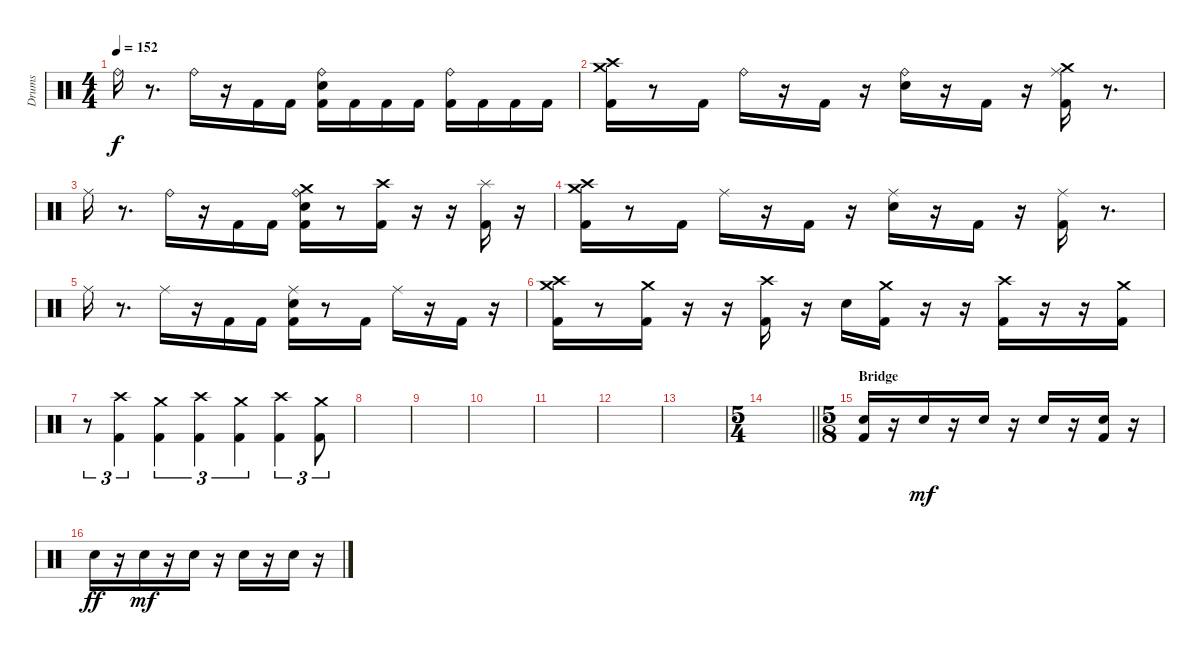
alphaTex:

\track ("Drums" "Drums") {instrument percussion}
\staff {score}
\articulation defaults
\ts (4 4)
\tempo 152
\clef neutral
\ks c "Ride (bell)".16{dy f}
r.8{d} "Ride (bell)".16 r.16 "Kick (hit) 2".16 "Kick (hit) 2".16 ("Ride (bell)" "Snare (hit) 2" "Kick (hit) 2").16 "Kick (hit) 2".16 "Kick (hit) 2".16 "Kick (hit) 2".16 ("Ride (bell)" "Kick (hit) 2").16 "Kick (hit) 2".16 "Kick (hit) 2".16 "Kick (hit) 2".16 |
("Crash medium (hit)" "Crash high (hit)" "Kick (hit) 2").16 r.8 "Kick (hit) 2".16 "Ride (bell)".16 r.16 "Kick (hit) 2".16 r.16 ("Ride (bell)" "Snare (hit) 2").16 r.16 "Kick (hit) 2".16 r.16 ("Crash medium (hit)" "Ride (middle)" "Kick (hit) 2").16 r.8{d} |
"Ride (middle)".16 r.8{d} "Ride (bell)".16 r.16 "Kick (hit) 2".16 "Kick (hit) 2".16 ("Crash medium (hit)" "Ride (bell)" "Snare (hit) 2" "Kick (hit) 2").16 r.8 ("Crash high (hit)" "Kick (hit) 2").16 r.16 r.16 ("Splash (hit)" "Kick (hit) 2").16 r.16 |
("Crash medium (hit)" "Crash high (hit)" "Kick (hit) 2").16 r.8 "Kick (hit) 2".16 "Ride (middle)".16 r.16 "Kick (hit) 2".16 r.16 ("Ride (middle)" "Snare (hit) 2").16 r.16 "Kick (hit) 2".16 r.16 ("Ride (middle)" "Kick (hit) 2").16 r.8{d} |
"Ride (middle)".16 r.8{d} "Ride (middle)".16 r.16 "Kick (hit) 2".16 "Kick (hit) 2".16 ("Ride (middle)" "Snare (hit) 2" "Kick (hit) 2").16 r.8 "Kick (hit) 2".16 "Ride (middle)".16 r.16 "Kick (hit) 2".16 r.16 |
("Crash medium (hit)" "Crash high (hit)" "Kick (hit) 2").16 r.8 ("Crash medium (hit)" "Kick (hit) 2").16 r.16 r.16 ("Crash high (hit)" "Kick (hit) 2").16 r.16 "Snare (hit) 2".16 ("Crash medium (hit)" "Kick (hit) 2").16 r.16 r.16 ("Crash high (hit)" "Kick (hit) 2").16 r.16 r.16 ("Crash medium (hit)" "Kick (hit) 2").16 |
r.8{tu (3 2)} ("Crash high (hit)" "Kick (hit) 2").4{tu (3 2)} ("Crash medium (hit)" "Kick (hit) 2").4{tu (3 2)} ("Crash high (hit)" "Kick (hit) 2").4{tu (3 2)} ("Crash medium (hit)" "Kick (hit) 2").4{tu (3 2)} ("Crash high (hit)" "Kick (hit) 2").4{tu (3 2)} ("Crash medium (hit)" "Kick (hit) 2").8{tu (3 2)} |
|
|
|
|
|
|
\ts (5 4)
\barLineRight lightlight
|
\ts (5 8)
\section ("" "Bridge")
("Snare (hit) 2" "Kick (hit) 2").16 r.16 "Snare (hit) 2".16{dy mf} r.16 "Snare (hit) 2".16 r.16 "Snare (hit) 2".16 r.16 ("Snare (hit) 2" "Kick (hit) 2").16 r.16 |
"Snare (hit) 2".16{dy ff} r.16 "Snare (hit) 2".16{dy mf} r.16 "Snare (hit) 2".16 r.16 "Snare (hit) 2".16 r.16 "Snare (hit) 2".16 r.16
